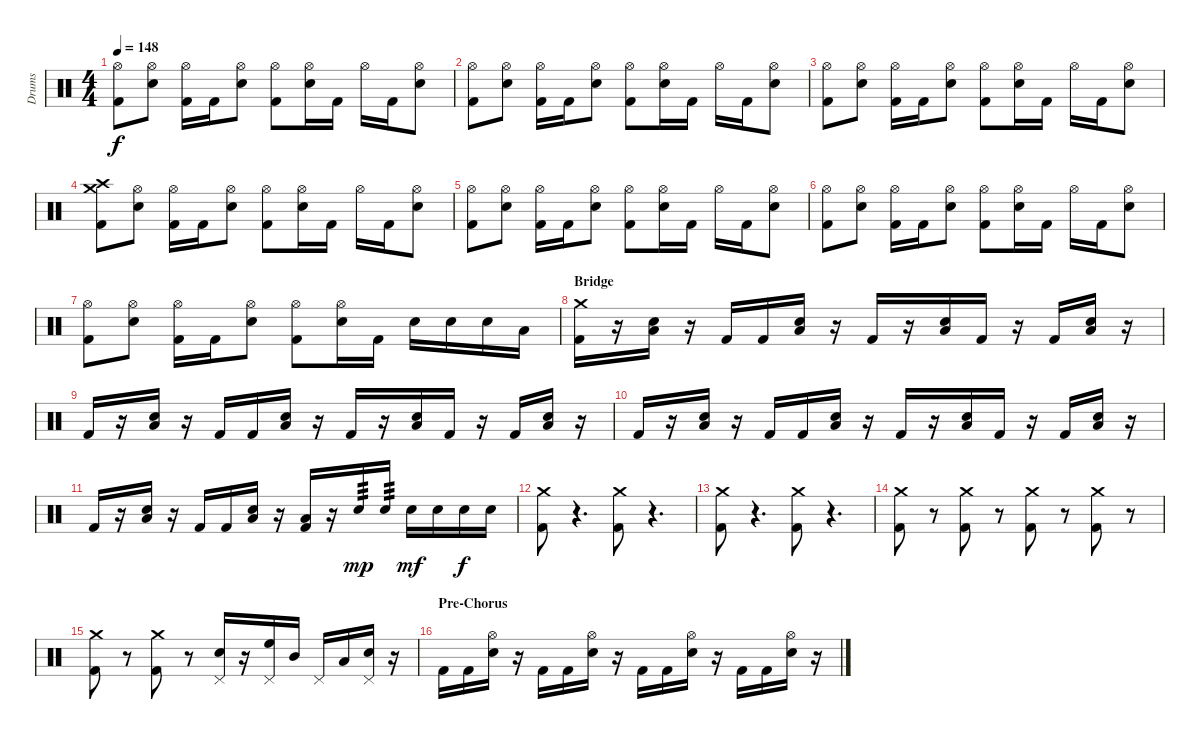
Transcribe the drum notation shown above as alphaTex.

\track ("Drums" "Drums") {instrument percussion}
\staff {score}
\articulation defaults
\ts (4 4)
\tempo 148
\clef neutral
\ks c
("Hi-Hat (open)" "Kick (hit) 2").8{dy f} ("Hi-Hat (open)" "Electric Snare (hit)").8 ("Hi-Hat (open)" "Kick (hit) 2").16 "Kick (hit) 2".16 ("Hi-Hat (open)" "Electric Snare (hit)").8 ("Hi-Hat (open)" "Kick (hit) 2").8 ("Hi-Hat (open)" "Electric Snare (hit)").16 "Kick (hit) 2".16 "Hi-Hat (open)".16 "Kick (hit) 2".16 ("Hi-Hat (open)" "Electric Snare (hit)").8 |
("Hi-Hat (open)" "Kick (hit) 2").8 ("Hi-Hat (open)" "Electric Snare (hit)").8 ("Hi-Hat (open)" "Kick (hit) 2").16 "Kick (hit) 2".16 ("Hi-Hat (open)" "Electric Snare (hit)").8 ("Hi-Hat (open)" "Kick (hit) 2").8 ("Hi-Hat (open)" "Electric Snare (hit)").16 "Kick (hit) 2".16 "Hi-Hat (open)".16 "Kick (hit) 2".16 ("Hi-Hat (open)" "Electric Snare (hit)").8 |
("Hi-Hat (open)" "Kick (hit) 2").8 ("Hi-Hat (open)" "Electric Snare (hit)").8 ("Hi-Hat (open)" "Kick (hit) 2").16 "Kick (hit) 2".16 ("Hi-Hat (open)" "Electric Snare (hit)").8 ("Hi-Hat (open)" "Kick (hit) 2").8 ("Hi-Hat (open)" "Electric Snare (hit)").16 "Kick (hit) 2".16 "Hi-Hat (open)".16 "Kick (hit) 2".16 ("Hi-Hat (open)" "Electric Snare (hit)").8 |
("Crash high (hit)" "Crash medium (hit)" "Kick (hit) 2").8 ("Hi-Hat (open)" "Electric Snare (hit)").8 ("Hi-Hat (open)" "Kick (hit) 2").16 "Kick (hit) 2".16 ("Hi-Hat (open)" "Electric Snare (hit)").8 ("Hi-Hat (open)" "Kick (hit) 2").8 ("Hi-Hat (open)" "Electric Snare (hit)").16 "Kick (hit) 2".16 "Hi-Hat (open)".16 "Kick (hit) 2".16 ("Hi-Hat (open)" "Electric Snare (hit)").8 |
("Hi-Hat (open)" "Kick (hit) 2").8 ("Hi-Hat (open)" "Electric Snare (hit)").8 ("Hi-Hat (open)" "Kick (hit) 2").16 "Kick (hit) 2".16 ("Hi-Hat (open)" "Electric Snare (hit)").8 ("Hi-Hat (open)" "Kick (hit) 2").8 ("Hi-Hat (open)" "Electric Snare (hit)").16 "Kick (hit) 2".16 "Hi-Hat (open)".16 "Kick (hit) 2".16 ("Hi-Hat (open)" "Electric Snare (hit)").8 |
("Hi-Hat (open)" "Kick (hit) 2").8 ("Hi-Hat (open)" "Electric Snare (hit)").8 ("Hi-Hat (open)" "Kick (hit) 2").16 "Kick (hit) 2".16 ("Hi-Hat (open)" "Electric Snare (hit)").8 ("Hi-Hat (open)" "Kick (hit) 2").8 ("Hi-Hat (open)" "Electric Snare (hit)").16 "Kick (hit) 2".16 "Hi-Hat (open)".16 "Kick (hit) 2".16 ("Hi-Hat (open)" "Electric Snare (hit)").8 |
("Hi-Hat (open)" "Kick (hit) 2").8 ("Hi-Hat (open)" "Electric Snare (hit)").8 ("Hi-Hat (open)" "Kick (hit) 2").16 "Kick (hit) 2".16 ("Hi-Hat (open)" "Electric Snare (hit)").8 ("Hi-Hat (open)" "Kick (hit) 2").8 ("Hi-Hat (open)" "Electric Snare (hit)").16 "Kick (hit) 2".16 "Electric Snare (hit)".16 "Electric Snare (hit)".16 "Electric Snare (hit)".16 "Low Tom (hit)".16 |
\section ("" "Bridge")
("Crash medium (hit)" "Kick (hit) 2").16 r.16 ("Electric Snare (hit)" "Low Tom (hit)").16 r.16 "Kick (hit) 2".16 "Kick (hit) 2".16 ("Electric Snare (hit)" "Low Tom (hit)").16 r.16 "Kick (hit) 2".16 r.16 ("Electric Snare (hit)" "Low Tom (hit)").16 "Kick (hit) 2".16 r.16 "Kick (hit) 2".16 ("Electric Snare (hit)" "Low Tom (hit)").16 r.16 |
"Kick (hit) 2".16 r.16 ("Electric Snare (hit)" "Low Tom (hit)").16 r.16 "Kick (hit) 2".16 "Kick (hit) 2".16 ("Electric Snare (hit)" "Low Tom (hit)").16 r.16 "Kick (hit) 2".16 r.16 ("Electric Snare (hit)" "Low Tom (hit)").16 "Kick (hit) 2".16 r.16 "Kick (hit) 2".16 ("Electric Snare (hit)" "Low Tom (hit)").16 r.16 |
"Kick (hit) 2".16 r.16 ("Electric Snare (hit)" "Low Tom (hit)").16 r.16 "Kick (hit) 2".16 "Kick (hit) 2".16 ("Electric Snare (hit)" "Low Tom (hit)").16 r.16 "Kick (hit) 2".16 r.16 ("Electric Snare (hit)" "Low Tom (hit)").16 "Kick (hit) 2".16 r.16 "Kick (hit) 2".16 ("Electric Snare (hit)" "Low Tom (hit)").16 r.16 |
"Kick (hit) 2".16 r.16 ("Electric Snare (hit)" "Low Tom (hit)").16 r.16 "Kick (hit) 2".16 "Kick (hit) 2".16 ("Electric Snare (hit)" "Low Tom (hit)").16 r.16 ("Low Tom (hit)" "Kick (hit) 2").16 r.16 "Electric Snare (hit)".16{tp 3 dy mp} "Electric Snare (hit)".16{tp 3} "Electric Snare (hit)".16{dy mf} "Electric Snare (hit)".16 "Electric Snare (hit)".16{dy f} "Electric Snare (hit)".16 |
("Crash medium (hit)" "Kick (hit) 2").8 r.4{d volume 0} ("Crash medium (hit)" "Kick (hit) 2").8{volume 13} r.4{d volume 0} |
("Crash medium (hit)" "Kick (hit) 2").8{volume 13} r.4{d volume 0} ("Crash medium (hit)" "Kick (hit) 2").8{volume 13} r.4{d volume 0} |
("Crash medium (hit)" "Kick (hit) 2").8{volume 13} r.8{volume 0} ("Crash medium (hit)" "Kick (hit) 2").8{volume 13} r.8{volume 0} ("Crash medium (hit)" "Kick (hit) 2").8{volume 13} r.8{volume 0} ("Crash medium (hit)" "Kick (hit) 2").8{volume 13} r.8{volume 0} |
("Crash medium (hit)" "Kick (hit) 2").8{volume 13} r.8{volume 0} ("Crash medium (hit)" "Kick (hit) 2").8{volume 13} r.8 ("Pedal Hi-Hat (hit)" "Electric Snare (hit)").16 r.16 ("Pedal Hi-Hat (hit)" "High Floor Tom (hit)").16 "Mid Tom (hit)".16 "Pedal Hi-Hat (hit)".16 "Low Tom (hit)".16 ("Pedal Hi-Hat (hit)" "Electric Snare (hit)").16 r.16 |
\section ("" "Pre-Chorus")
"Kick (hit) 2".16 "Kick (hit) 2".16 ("Hi-Hat (open)" "Electric Snare (hit)").16 r.16 "Kick (hit) 2".16 "Kick (hit) 2".16 ("Hi-Hat (open)" "Electric Snare (hit)").16 r.16 "Kick (hit) 2".16 "Kick (hit) 2".16 ("Hi-Hat (open)" "Electric Snare (hit)").16 r.16 "Kick (hit) 2".16 "Kick (hit) 2".16 ("Hi-Hat (open)" "Electric Snare (hit)").16 r.16
